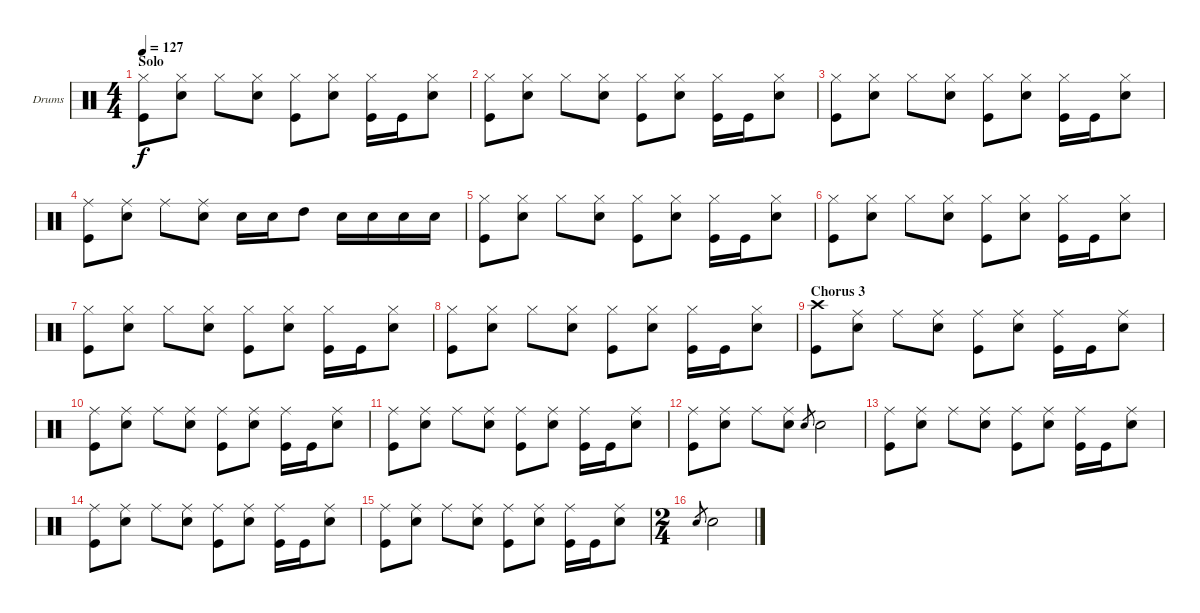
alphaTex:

\bracketExtendMode nobrackets
\firstSystemTrackNameOrientation horizontal
\otherSystemsTrackNameOrientation horizontal
\track ("Matt Cameron" "Drums") {instrument percussion}
\staff {score}
\articulation defaults
\ts (4 4)
\section ("" "Solo")
\tempo 127
\clef neutral
\scale
0.333333
\ks c
("Kick (hit)" "Hi-Hat (closed)").8{dy f} ("Snare (hit) 2" "Hi-Hat (closed)").8 "Hi-Hat (closed)".8 ("Snare (hit) 2" "Hi-Hat (closed)").8 ("Kick (hit)" "Hi-Hat (closed)").8 ("Snare (hit) 2" "Hi-Hat (closed)").8 ("Kick (hit)" "Hi-Hat (closed)").16 "Kick (hit)".16 ("Snare (hit) 2" "Hi-Hat (closed)").8 |
\scale
0.333333 ("Kick (hit)" "Hi-Hat (closed)").8 ("Snare (hit) 2" "Hi-Hat (closed)").8 "Hi-Hat (closed)".8 ("Snare (hit) 2" "Hi-Hat (closed)").8 ("Kick (hit)" "Hi-Hat (closed)").8 ("Snare (hit) 2" "Hi-Hat (closed)").8 ("Kick (hit)" "Hi-Hat (closed)").16 "Kick (hit)".16 ("Snare (hit) 2" "Hi-Hat (closed)").8 |
\scale
0.333333 ("Kick (hit)" "Hi-Hat (closed)").8 ("Snare (hit) 2" "Hi-Hat (closed)").8 "Hi-Hat (closed)".8 ("Snare (hit) 2" "Hi-Hat (closed)").8 ("Kick (hit)" "Hi-Hat (closed)").8 ("Snare (hit) 2" "Hi-Hat (closed)").8 ("Kick (hit)" "Hi-Hat (closed)").16 "Kick (hit)".16 ("Snare (hit) 2" "Hi-Hat (closed)").8 |
\scale
0.333333 ("Kick (hit)" "Ride (middle)").8 ("Snare (hit) 2" "Ride (middle)").8 "Ride (middle)".8 ("Snare (hit) 2" "Ride (middle)").8 "Snare (hit) 2".16 "Snare (hit) 2".16 "High Tom (hit)".8 "Snare (hit) 2".16 "Snare (hit) 2".16 "Snare (hit) 2".16 "Snare (hit) 2".16 |
\scale
0.333333 ("Kick (hit)" "Hi-Hat (closed)").8 ("Snare (hit) 2" "Hi-Hat (closed)").8 "Hi-Hat (closed)".8 ("Snare (hit) 2" "Hi-Hat (closed)").8 ("Kick (hit)" "Hi-Hat (closed)").8 ("Snare (hit) 2" "Hi-Hat (closed)").8 ("Kick (hit)" "Hi-Hat (closed)").16 "Kick (hit)".16 ("Snare (hit) 2" "Hi-Hat (closed)").8 |
\scale
0.333333 ("Kick (hit)" "Hi-Hat (closed)").8 ("Snare (hit) 2" "Hi-Hat (closed)").8 "Hi-Hat (closed)".8 ("Snare (hit) 2" "Hi-Hat (closed)").8 ("Kick (hit)" "Hi-Hat (closed)").8 ("Snare (hit) 2" "Hi-Hat (closed)").8 ("Kick (hit)" "Hi-Hat (closed)").16 "Kick (hit)".16 ("Snare (hit) 2" "Hi-Hat (closed)").8 |
\scale
0.333333 ("Kick (hit)" "Hi-Hat (closed)").8 ("Snare (hit) 2" "Hi-Hat (closed)").8 "Hi-Hat (closed)".8 ("Snare (hit) 2" "Hi-Hat (closed)").8 ("Kick (hit)" "Hi-Hat (closed)").8 ("Snare (hit) 2" "Hi-Hat (closed)").8 ("Kick (hit)" "Hi-Hat (closed)").16 "Kick (hit)".16 ("Snare (hit) 2" "Hi-Hat (closed)").8 |
\scale
0.333333 ("Kick (hit)" "Hi-Hat (closed)").8 ("Snare (hit) 2" "Hi-Hat (closed)").8 "Hi-Hat (closed)".8 ("Snare (hit) 2" "Hi-Hat (closed)").8 ("Kick (hit)" "Hi-Hat (closed)").8 ("Snare (hit) 2" "Hi-Hat (closed)").8 ("Kick (hit)" "Hi-Hat (closed)").16 "Kick (hit)".16 ("Snare (hit) 2" "Hi-Hat (closed)").8 |
\section ("" "Chorus 3")
\scale
0.333333 ("Kick (hit)" "Crash high (hit)").8 ("Snare (hit) 2" "Ride (middle)").8 "Ride (middle)".8 ("Snare (hit) 2" "Ride (middle)").8 ("Kick (hit)" "Ride (middle)").8 ("Snare (hit) 2" "Ride (middle)").8 ("Kick (hit)" "Ride (middle)").16 "Kick (hit)".16 ("Snare (hit) 2" "Ride (middle)").8 |
\scale
0.333333 ("Kick (hit)" "Ride (middle)").8 ("Snare (hit) 2" "Ride (middle)").8 "Ride (middle)".8 ("Snare (hit) 2" "Ride (middle)").8 ("Kick (hit)" "Ride (middle)").8 ("Snare (hit) 2" "Ride (middle)").8 ("Kick (hit)" "Ride (middle)").16 "Kick (hit)".16 ("Snare (hit) 2" "Ride (middle)").8 |
\scale
0.333333 ("Kick (hit)" "Ride (middle)").8 ("Snare (hit) 2" "Ride (middle)").8 "Ride (middle)".8 ("Snare (hit) 2" "Ride (middle)").8 ("Kick (hit)" "Ride (middle)").8 ("Snare (hit) 2" "Ride (middle)").8 ("Kick (hit)" "Ride (middle)").16 "Kick (hit)".16 ("Snare (hit) 2" "Ride (middle)").8 |
\scale
0.333333 ("Kick (hit)" "Ride (middle)").8 ("Snare (hit) 2" "Ride (middle)").8 "Ride (middle)".8 ("Snare (hit) 2" "Ride (middle)").8 "Snare (hit) 2".8{gr} "Snare (hit) 2".2 |
\scale
0.333333 ("Kick (hit)" "Ride (middle)").8 ("Snare (hit) 2" "Ride (middle)").8 "Ride (middle)".8 ("Snare (hit) 2" "Ride (middle)").8 ("Kick (hit)" "Ride (middle)").8 ("Snare (hit) 2" "Ride (middle)").8 ("Kick (hit)" "Ride (middle)").16 "Kick (hit)".16 ("Snare (hit) 2" "Ride (middle)").8 |
\scale
0.333333 ("Kick (hit)" "Ride (middle)").8 ("Snare (hit) 2" "Ride (middle)").8 "Ride (middle)".8 ("Snare (hit) 2" "Ride (middle)").8 ("Kick (hit)" "Ride (middle)").8 ("Snare (hit) 2" "Ride (middle)").8 ("Kick (hit)" "Ride (middle)").16 "Kick (hit)".16 ("Snare (hit) 2" "Ride (middle)").8 |
\scale
0.333333 ("Kick (hit)" "Ride (middle)").8 ("Snare (hit) 2" "Ride (middle)").8 "Ride (middle)".8 ("Snare (hit) 2" "Ride (middle)").8 ("Kick (hit)" "Ride (middle)").8 ("Snare (hit) 2" "Ride (middle)").8 ("Kick (hit)" "Ride (middle)").16 "Kick (hit)".16 ("Snare (hit) 2" "Ride (middle)").8 |
\ts (2 4)
\scale
0.37037 "Snare (hit) 2".8{gr} "Snare (hit) 2".2
